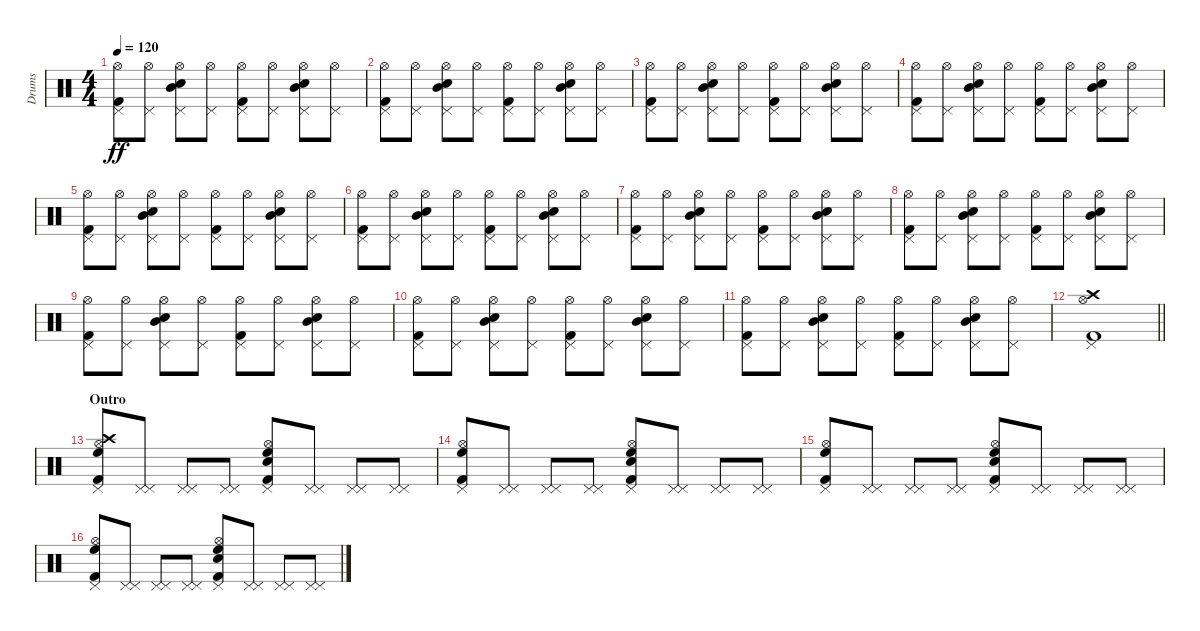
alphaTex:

\track ("Drums" "Drums") {instrument percussion}
\staff {score}
\articulation defaults
\ts (4 4)
\tempo 120
\clef neutral
\ks c
("Pedal Hi-Hat (hit)" "Hi-Hat (open)" "Kick (hit) 2").8{dy ff} ("Pedal Hi-Hat (hit)" "Hi-Hat (open)").8 ("Pedal Hi-Hat (hit)" "Hi-Hat (open)" "Electric Snare (hit)" "Mid Tom (hit)").8 ("Pedal Hi-Hat (hit)" "Hi-Hat (open)").8 ("Pedal Hi-Hat (hit)" "Hi-Hat (open)" "Kick (hit) 2").8 ("Pedal Hi-Hat (hit)" "Hi-Hat (open)").8 ("Pedal Hi-Hat (hit)" "Hi-Hat (open)" "Electric Snare (hit)" "Mid Tom (hit)").8 ("Pedal Hi-Hat (hit)" "Hi-Hat (open)").8 |
("Pedal Hi-Hat (hit)" "Hi-Hat (open)" "Kick (hit) 2").8 ("Pedal Hi-Hat (hit)" "Hi-Hat (open)").8 ("Pedal Hi-Hat (hit)" "Hi-Hat (open)" "Electric Snare (hit)" "Mid Tom (hit)").8 ("Pedal Hi-Hat (hit)" "Hi-Hat (open)").8 ("Pedal Hi-Hat (hit)" "Hi-Hat (open)" "Kick (hit) 2").8 ("Pedal Hi-Hat (hit)" "Hi-Hat (open)").8 ("Pedal Hi-Hat (hit)" "Hi-Hat (open)" "Electric Snare (hit)" "Mid Tom (hit)").8 ("Pedal Hi-Hat (hit)" "Hi-Hat (open)").8 |
("Pedal Hi-Hat (hit)" "Hi-Hat (open)" "Kick (hit) 2").8 ("Pedal Hi-Hat (hit)" "Hi-Hat (open)").8 ("Pedal Hi-Hat (hit)" "Hi-Hat (open)" "Electric Snare (hit)" "Mid Tom (hit)").8 ("Pedal Hi-Hat (hit)" "Hi-Hat (open)").8 ("Pedal Hi-Hat (hit)" "Hi-Hat (open)" "Kick (hit) 2").8 ("Pedal Hi-Hat (hit)" "Hi-Hat (open)").8 ("Pedal Hi-Hat (hit)" "Hi-Hat (open)" "Electric Snare (hit)" "Mid Tom (hit)").8 ("Pedal Hi-Hat (hit)" "Hi-Hat (open)").8 |
("Pedal Hi-Hat (hit)" "Hi-Hat (open)" "Kick (hit) 2").8 ("Pedal Hi-Hat (hit)" "Hi-Hat (open)").8 ("Pedal Hi-Hat (hit)" "Hi-Hat (open)" "Electric Snare (hit)" "Mid Tom (hit)").8 ("Pedal Hi-Hat (hit)" "Hi-Hat (open)").8 ("Pedal Hi-Hat (hit)" "Hi-Hat (open)" "Kick (hit) 2").8 ("Pedal Hi-Hat (hit)" "Hi-Hat (open)").8 ("Pedal Hi-Hat (hit)" "Hi-Hat (open)" "Electric Snare (hit)" "Mid Tom (hit)").8 ("Pedal Hi-Hat (hit)" "Hi-Hat (open)").8 |
("Pedal Hi-Hat (hit)" "Hi-Hat (open)" "Kick (hit) 2").8 ("Pedal Hi-Hat (hit)" "Hi-Hat (open)").8 ("Pedal Hi-Hat (hit)" "Hi-Hat (open)" "Electric Snare (hit)" "Mid Tom (hit)").8 ("Pedal Hi-Hat (hit)" "Hi-Hat (open)").8 ("Pedal Hi-Hat (hit)" "Hi-Hat (open)" "Kick (hit) 2").8 ("Pedal Hi-Hat (hit)" "Hi-Hat (open)").8 ("Pedal Hi-Hat (hit)" "Hi-Hat (open)" "Electric Snare (hit)" "Mid Tom (hit)").8 ("Pedal Hi-Hat (hit)" "Hi-Hat (open)").8 |
("Pedal Hi-Hat (hit)" "Hi-Hat (open)" "Kick (hit) 2").8 ("Pedal Hi-Hat (hit)" "Hi-Hat (open)").8 ("Pedal Hi-Hat (hit)" "Hi-Hat (open)" "Electric Snare (hit)" "Mid Tom (hit)").8 ("Pedal Hi-Hat (hit)" "Hi-Hat (open)").8 ("Pedal Hi-Hat (hit)" "Hi-Hat (open)" "Kick (hit) 2").8 ("Pedal Hi-Hat (hit)" "Hi-Hat (open)").8 ("Pedal Hi-Hat (hit)" "Hi-Hat (open)" "Electric Snare (hit)" "Mid Tom (hit)").8 ("Pedal Hi-Hat (hit)" "Hi-Hat (open)").8 |
("Pedal Hi-Hat (hit)" "Hi-Hat (open)" "Kick (hit) 2").8 ("Pedal Hi-Hat (hit)" "Hi-Hat (open)").8 ("Pedal Hi-Hat (hit)" "Hi-Hat (open)" "Electric Snare (hit)" "Mid Tom (hit)").8 ("Pedal Hi-Hat (hit)" "Hi-Hat (open)").8 ("Pedal Hi-Hat (hit)" "Hi-Hat (open)" "Kick (hit) 2").8 ("Pedal Hi-Hat (hit)" "Hi-Hat (open)").8 ("Pedal Hi-Hat (hit)" "Hi-Hat (open)" "Electric Snare (hit)" "Mid Tom (hit)").8 ("Pedal Hi-Hat (hit)" "Hi-Hat (open)").8 |
("Pedal Hi-Hat (hit)" "Hi-Hat (open)" "Kick (hit) 2").8 ("Pedal Hi-Hat (hit)" "Hi-Hat (open)").8 ("Pedal Hi-Hat (hit)" "Hi-Hat (open)" "Electric Snare (hit)" "Mid Tom (hit)").8 ("Pedal Hi-Hat (hit)" "Hi-Hat (open)").8 ("Pedal Hi-Hat (hit)" "Hi-Hat (open)" "Kick (hit) 2").8 ("Pedal Hi-Hat (hit)" "Hi-Hat (open)").8 ("Pedal Hi-Hat (hit)" "Hi-Hat (open)" "Electric Snare (hit)" "Mid Tom (hit)").8 ("Pedal Hi-Hat (hit)" "Hi-Hat (open)").8 |
("Pedal Hi-Hat (hit)" "Hi-Hat (open)" "Kick (hit) 2").8 ("Pedal Hi-Hat (hit)" "Hi-Hat (open)").8 ("Pedal Hi-Hat (hit)" "Hi-Hat (open)" "Electric Snare (hit)" "Mid Tom (hit)").8 ("Pedal Hi-Hat (hit)" "Hi-Hat (open)").8 ("Pedal Hi-Hat (hit)" "Hi-Hat (open)" "Kick (hit) 2").8 ("Pedal Hi-Hat (hit)" "Hi-Hat (open)").8 ("Pedal Hi-Hat (hit)" "Hi-Hat (open)" "Electric Snare (hit)" "Mid Tom (hit)").8 ("Pedal Hi-Hat (hit)" "Hi-Hat (open)").8 |
("Pedal Hi-Hat (hit)" "Hi-Hat (open)" "Kick (hit) 2").8 ("Pedal Hi-Hat (hit)" "Hi-Hat (open)").8 ("Pedal Hi-Hat (hit)" "Hi-Hat (open)" "Electric Snare (hit)" "Mid Tom (hit)").8 ("Pedal Hi-Hat (hit)" "Hi-Hat (open)").8 ("Pedal Hi-Hat (hit)" "Hi-Hat (open)" "Kick (hit) 2").8 ("Pedal Hi-Hat (hit)" "Hi-Hat (open)").8 ("Pedal Hi-Hat (hit)" "Hi-Hat (open)" "Electric Snare (hit)" "Mid Tom (hit)").8 ("Pedal Hi-Hat (hit)" "Hi-Hat (open)").8 |
("Pedal Hi-Hat (hit)" "Hi-Hat (open)" "Kick (hit) 2").8 ("Pedal Hi-Hat (hit)" "Hi-Hat (open)").8 ("Pedal Hi-Hat (hit)" "Hi-Hat (open)" "Electric Snare (hit)" "Mid Tom (hit)").8 ("Pedal Hi-Hat (hit)" "Hi-Hat (open)").8 ("Pedal Hi-Hat (hit)" "Hi-Hat (open)" "Kick (hit) 2").8 ("Pedal Hi-Hat (hit)" "Hi-Hat (open)").8 ("Pedal Hi-Hat (hit)" "Hi-Hat (open)" "Electric Snare (hit)" "Mid Tom (hit)").8 ("Pedal Hi-Hat (hit)" "Hi-Hat (open)").8 |
\barLineRight lightlight
("Pedal Hi-Hat (hit)" "Hi-Hat (open)" "Crash high (hit)" "Kick (hit) 2").1 |
\section ("" "Outro")
("High Floor Tom (hit)" "Hi-Hat (open)" "Crash high (hit)" "Pedal Hi-Hat (hit)" "Kick (hit) 2").8 ("Pedal Hi-Hat (hit)" "Pedal Hi-Hat (hit)").8 ("Pedal Hi-Hat (hit)" "Pedal Hi-Hat (hit)").8 ("Pedal Hi-Hat (hit)" "Pedal Hi-Hat (hit)").8 ("High Floor Tom (hit)" "Hi-Hat (open)" "Electric Snare (hit)" "Pedal Hi-Hat (hit)" "Kick (hit) 2").8 ("Pedal Hi-Hat (hit)" "Pedal Hi-Hat (hit)").8 ("Pedal Hi-Hat (hit)" "Pedal Hi-Hat (hit)").8 ("Pedal Hi-Hat (hit)" "Pedal Hi-Hat (hit)").8 |
("High Floor Tom (hit)" "Hi-Hat (open)" "Pedal Hi-Hat (hit)" "Kick (hit) 2").8 ("Pedal Hi-Hat (hit)" "Pedal Hi-Hat (hit)").8 ("Pedal Hi-Hat (hit)" "Pedal Hi-Hat (hit)").8 ("Pedal Hi-Hat (hit)" "Pedal Hi-Hat (hit)").8 ("High Floor Tom (hit)" "Hi-Hat (open)" "Electric Snare (hit)" "Pedal Hi-Hat (hit)" "Kick (hit) 2").8 ("Pedal Hi-Hat (hit)" "Pedal Hi-Hat (hit)").8 ("Pedal Hi-Hat (hit)" "Pedal Hi-Hat (hit)").8 ("Pedal Hi-Hat (hit)" "Pedal Hi-Hat (hit)").8 |
("High Floor Tom (hit)" "Hi-Hat (open)" "Pedal Hi-Hat (hit)" "Kick (hit) 2").8 ("Pedal Hi-Hat (hit)" "Pedal Hi-Hat (hit)").8 ("Pedal Hi-Hat (hit)" "Pedal Hi-Hat (hit)").8 ("Pedal Hi-Hat (hit)" "Pedal Hi-Hat (hit)").8 ("High Floor Tom (hit)" "Hi-Hat (open)" "Electric Snare (hit)" "Pedal Hi-Hat (hit)" "Kick (hit) 2").8 ("Pedal Hi-Hat (hit)" "Pedal Hi-Hat (hit)").8 ("Pedal Hi-Hat (hit)" "Pedal Hi-Hat (hit)").8 ("Pedal Hi-Hat (hit)" "Pedal Hi-Hat (hit)").8 |
("High Floor Tom (hit)" "Hi-Hat (open)" "Pedal Hi-Hat (hit)" "Kick (hit) 2").8 ("Pedal Hi-Hat (hit)" "Pedal Hi-Hat (hit)").8 ("Pedal Hi-Hat (hit)" "Pedal Hi-Hat (hit)").8 ("Pedal Hi-Hat (hit)" "Pedal Hi-Hat (hit)").8 ("High Floor Tom (hit)" "Hi-Hat (open)" "Electric Snare (hit)" "Pedal Hi-Hat (hit)" "Kick (hit) 2").8 ("Pedal Hi-Hat (hit)" "Pedal Hi-Hat (hit)").8 ("Pedal Hi-Hat (hit)" "Pedal Hi-Hat (hit)").8 ("Pedal Hi-Hat (hit)" "Pedal Hi-Hat (hit)").8
